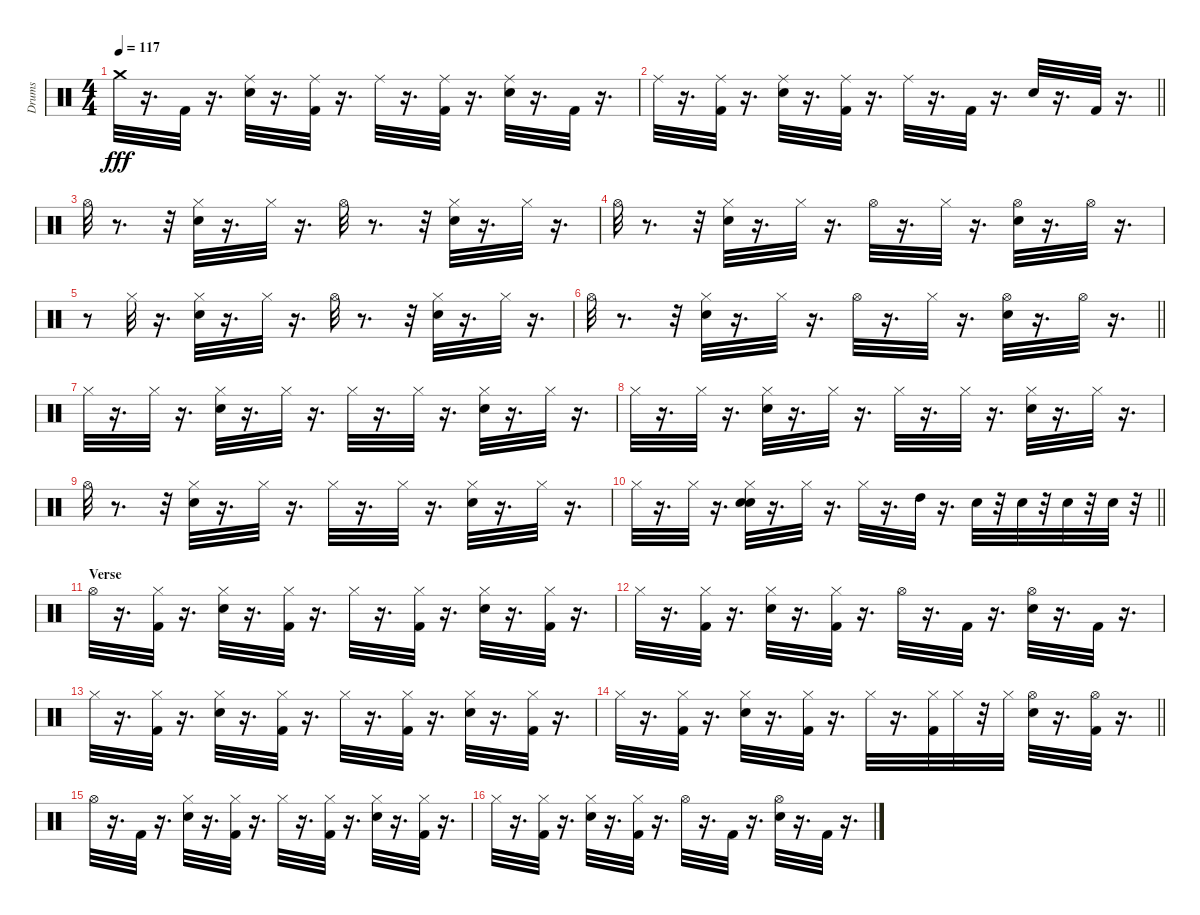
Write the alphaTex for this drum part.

\track ("Drums" "Drums") {instrument percussion}
\staff {score}
\articulation defaults
\ts (4 4)
\tempo 117
\clef neutral
\ks c "Crash medium (hit)".32{dy fff}
r.16{d} "Kick (hit) 2".32 r.16{d} ("Electric Snare (hit)" "Ride (middle)").32 r.16{d} ("Kick (hit) 2" "Ride (middle)").32 r.16{d} "Ride (middle)".32 r.16{d} ("Kick (hit) 2" "Ride (middle)").32 r.16{d} ("Electric Snare (hit)" "Ride (middle)").32 r.16{d} "Kick (hit) 2".32 r.16{d} |
\barLineRight lightlight "Ride (middle)".32
r.16{d} ("Kick (hit) 2" "Ride (middle)").32 r.16{d} ("Electric Snare (hit)" "Ride (middle)").32 r.16{d} ("Kick (hit) 2" "Ride (middle)").32 r.16{d} "Ride (middle)".32 r.16{d} "Kick (hit) 2".32 r.16{d} "Electric Snare (hit)".32 r.16{d} "Kick (hit) 2".32 r.16{d} |
"Hi-Hat (open)".32 r.8{d} r.32 ("Hi-Hat (closed)" "Electric Snare (hit)").32 r.16{d} "Hi-Hat (closed)".32 r.16{d} "Hi-Hat (open)".32 r.8{d} r.32 ("Electric Snare (hit)" "Hi-Hat (closed)").32 r.16{d} "Hi-Hat (closed)".32 r.16{d} |
"Hi-Hat (open)".32 r.8{d} r.32 ("Electric Snare (hit)" "Hi-Hat (closed)").32 r.16{d} "Hi-Hat (closed)".32 r.16{d} "Hi-Hat (open)".32 r.16{d} "Hi-Hat (closed)".32 r.16{d} ("Electric Snare (hit)" "Hi-Hat (open)").32 r.16{d} "Hi-Hat (open)".32 r.16{d} |
r.8 "Hi-Hat (closed)".32 r.16{d} ("Electric Snare (hit)" "Hi-Hat (closed)").32 r.16{d} "Hi-Hat (closed)".32 r.16{d} "Hi-Hat (open)".32 r.8{d} r.32 ("Electric Snare (hit)" "Hi-Hat (closed)").32 r.16{d} "Hi-Hat (closed)".32 r.16{d} |
\barLineRight lightlight "Hi-Hat (open)".32
r.8{d} r.32 ("Hi-Hat (closed)" "Electric Snare (hit)").32 r.16{d} "Hi-Hat (closed)".32 r.16{d} "Hi-Hat (open)".32 r.16{d} "Hi-Hat (closed)".32 r.16{d} ("Electric Snare (hit)" "Hi-Hat (open)").32 r.16{d} "Hi-Hat (open)".32 r.16{d} |
"Hi-Hat (closed)".32 r.16{d} "Hi-Hat (closed)".32 r.16{d} ("Electric Snare (hit)" "Hi-Hat (closed)").32 r.16{d} "Hi-Hat (closed)".32 r.16{d} "Hi-Hat (closed)".32 r.16{d} "Hi-Hat (closed)".32 r.16{d} ("Electric Snare (hit)" "Hi-Hat (closed)").32 r.16{d} "Hi-Hat (closed)".32 r.16{d} |
"Hi-Hat (closed)".32 r.16{d} "Hi-Hat (closed)".32 r.16{d} ("Electric Snare (hit)" "Hi-Hat (closed)").32 r.16{d} "Hi-Hat (closed)".32 r.16{d} "Hi-Hat (closed)".32 r.16{d} "Hi-Hat (closed)".32 r.16{d} ("Electric Snare (hit)" "Hi-Hat (closed)").32 r.16{d} "Hi-Hat (closed)".32 r.16{d} |
"Hi-Hat (open)".32 r.8{d} r.32 ("Electric Snare (hit)" "Hi-Hat (closed)").32 r.16{d} "Hi-Hat (closed)".32 r.16{d} "Hi-Hat (closed)".32 r.16{d} "Hi-Hat (closed)".32 r.16{d} ("Electric Snare (hit)" "Hi-Hat (closed)").32 r.16{d} "Hi-Hat (closed)".32 r.16{d} |
\barLineRight lightlight "Hi-Hat (closed)".32
r.16{d} "Hi-Hat (closed)".32 r.16{d} ("Electric Snare (hit)" "Electric Snare (hit)" "Hi-Hat (closed)").32 r.16{d} "Hi-Hat (closed)".32 r.16{d} "Hi-Hat (closed)".32 r.16{d} "High Tom (hit)".32 r.16{d} "Electric Snare (hit)".32 r.32 "Electric Snare (hit)".32 r.32 "Electric Snare (hit)".32 r.32 "Electric Snare (hit)".32 r.32 |
\section ("" "Verse")
"Hi-Hat (open)".32 r.16{d} ("Kick (hit) 2" "Hi-Hat (closed)").32 r.16{d} ("Hi-Hat (closed)" "Electric Snare (hit)").32 r.16{d} ("Hi-Hat (closed)" "Kick (hit) 2").32 r.16{d} "Hi-Hat (closed)".32 r.16{d} ("Kick (hit) 2" "Hi-Hat (closed)").32 r.16{d} ("Electric Snare (hit)" "Hi-Hat (closed)").32 r.16{d} ("Hi-Hat (closed)" "Kick (hit) 2").32 r.16{d} |
"Hi-Hat (closed)".32 r.16{d} ("Kick (hit) 2" "Hi-Hat (closed)").32 r.16{d} ("Electric Snare (hit)" "Hi-Hat (closed)").32 r.16{d} ("Kick (hit) 2" "Hi-Hat (closed)").32 r.16{d} "Hi-Hat (open)".32 r.16{d} "Kick (hit) 2".32 r.16{d} ("Electric Snare (hit)" "Hi-Hat (open)").32 r.16{d} "Kick (hit) 2".32 r.16{d} |
"Hi-Hat (closed)".32 r.16{d} ("Kick (hit) 2" "Hi-Hat (closed)").32 r.16{d} ("Electric Snare (hit)" "Hi-Hat (closed)").32 r.16{d} ("Kick (hit) 2" "Hi-Hat (closed)").32 r.16{d} "Hi-Hat (closed)".32 r.16{d} ("Kick (hit) 2" "Hi-Hat (closed)").32 r.16{d} ("Electric Snare (hit)" "Hi-Hat (closed)").32 r.16{d} ("Kick (hit) 2" "Hi-Hat (closed)").32 r.16{d} |
\barLineRight lightlight "Hi-Hat (closed)".32
r.16{d} ("Kick (hit) 2" "Hi-Hat (closed)").32 r.16{d} ("Hi-Hat (closed)" "Electric Snare (hit)").32 r.16{d} ("Hi-Hat (closed)" "Kick (hit) 2").32 r.16{d} "Hi-Hat (closed)".32 r.16{d} ("Hi-Hat (closed)" "Kick (hit) 2").32 "Hi-Hat (closed)".32 r.32 "Hi-Hat (closed)".32 ("Electric Snare (hit)" "Hi-Hat (open)").32 r.16{d} ("Kick (hit) 2" "Hi-Hat (open)").32 r.16{d} |
"Hi-Hat (open)".32 r.16{d} "Kick (hit) 2".32 r.16{d} ("Electric Snare (hit)" "Hi-Hat (closed)").32 r.16{d} ("Hi-Hat (closed)" "Kick (hit) 2").32 r.16{d} "Hi-Hat (closed)".32 r.16{d} ("Kick (hit) 2" "Hi-Hat (closed)").32 r.16{d} ("Electric Snare (hit)" "Hi-Hat (closed)").32 r.16{d} ("Hi-Hat (closed)" "Kick (hit) 2").32 r.16{d} |
"Hi-Hat (closed)".32 r.16{d} ("Kick (hit) 2" "Hi-Hat (closed)").32 r.16{d} ("Electric Snare (hit)" "Hi-Hat (closed)").32 r.16{d} ("Kick (hit) 2" "Hi-Hat (closed)").32 r.16{d} "Hi-Hat (open)".32 r.16{d} "Kick (hit) 2".32 r.16{d} ("Electric Snare (hit)" "Hi-Hat (open)").32 r.16{d} "Kick (hit) 2".32 r.16{d}
